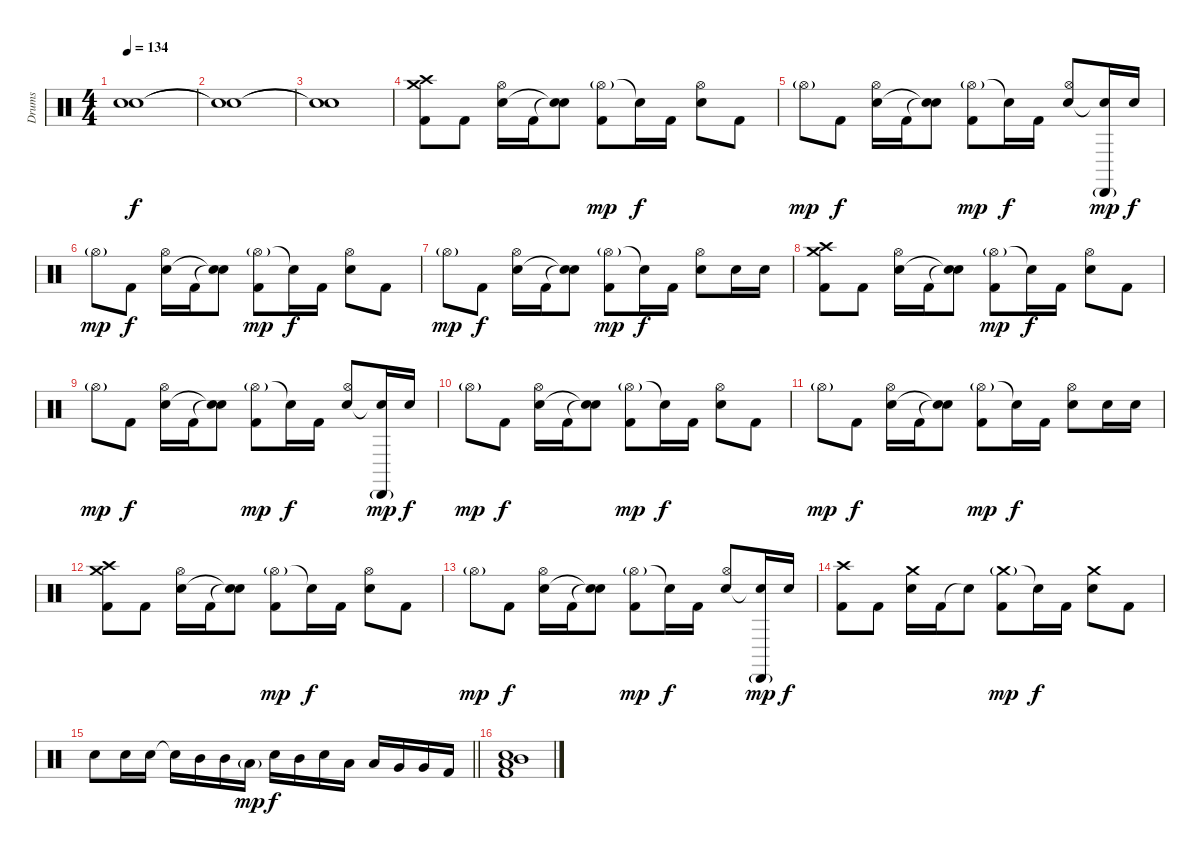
\track ("Drums" "Drums") {instrument percussion}
\staff {score}
\articulation defaults
\ts (4 4)
\tempo 134
\clef neutral
\ks c
("Snare (hit)"{t} "Snare (hit)"{t}).1{dy f} |
("Snare (hit)"{t} "Snare (hit)"{t}).1 |
("Snare (hit)"{t} "Snare (hit)"{t}).1 |
("Crash high (hit)" "Crash medium (hit)" "Kick (hit) 2").8 "Kick (hit) 2".8 ("Hi-Hat (open)" "Electric Snare (hit)").16 "Kick (hit) 2".16 ("Snare (hit)"{t} "Snare (hit)"{t}).8 ("Hi-Hat (open)"{g} "Kick (hit) 2").8{dy mp} "Snare (hit)"{t}.16{dy f} "Kick (hit) 2".16 ("Hi-Hat (open)" "Electric Snare (hit)").8 "Kick (hit) 2".8 |
"Hi-Hat (open)"{g}.8{dy mp} "Kick (hit) 2".8{dy f} ("Hi-Hat (open)" "Electric Snare (hit)").16 "Kick (hit) 2".16 ("Snare (hit)"{t} "Snare (hit)"{t}).8 ("Hi-Hat (open)"{g} "Kick (hit) 2").8{dy mp} "Snare (hit)"{t}.16{dy f} "Kick (hit) 2".16 ("Hi-Hat (open)" "Electric Snare (hit)").8 ("Cabasa (hit)"{g} "Snare (hit)"{t}).16{dy mp} "Electric Snare (hit)".16{dy f} |
"Hi-Hat (open)"{g}.8{dy mp} "Kick (hit) 2".8{dy f} ("Hi-Hat (open)" "Electric Snare (hit)").16 "Kick (hit) 2".16 ("Snare (hit)"{t} "Snare (hit)"{t}).8 ("Hi-Hat (open)"{g} "Kick (hit) 2").8{dy mp} "Snare (hit)"{t}.16{dy f} "Kick (hit) 2".16 ("Hi-Hat (open)" "Electric Snare (hit)").8 "Kick (hit) 2".8 |
"Hi-Hat (open)"{g}.8{dy mp} "Kick (hit) 2".8{dy f} ("Hi-Hat (open)" "Electric Snare (hit)").16 "Kick (hit) 2".16 ("Snare (hit)"{t} "Snare (hit)"{t}).8 ("Hi-Hat (open)"{g} "Kick (hit) 2").8{dy mp} "Snare (hit)"{t}.16{dy f} "Kick (hit) 2".16 ("Hi-Hat (open)" "Electric Snare (hit)").8 "Electric Snare (hit)".16 "Electric Snare (hit)".16 |
("Crash high (hit)" "Crash medium (hit)" "Kick (hit) 2").8 "Kick (hit) 2".8 ("Hi-Hat (open)" "Electric Snare (hit)").16 "Kick (hit) 2".16 ("Snare (hit)"{t} "Snare (hit)"{t}).8 ("Hi-Hat (open)"{g} "Kick (hit) 2").8{dy mp} "Snare (hit)"{t}.16{dy f} "Kick (hit) 2".16 ("Hi-Hat (open)" "Electric Snare (hit)").8 "Kick (hit) 2".8 |
"Hi-Hat (open)"{g}.8{dy mp} "Kick (hit) 2".8{dy f} ("Hi-Hat (open)" "Electric Snare (hit)").16 "Kick (hit) 2".16 ("Snare (hit)"{t} "Snare (hit)"{t}).8 ("Hi-Hat (open)"{g} "Kick (hit) 2").8{dy mp} "Snare (hit)"{t}.16{dy f} "Kick (hit) 2".16 ("Hi-Hat (open)" "Electric Snare (hit)").8 ("Cabasa (hit)"{g} "Snare (hit)"{t}).16{dy mp} "Electric Snare (hit)".16{dy f} |
"Hi-Hat (open)"{g}.8{dy mp} "Kick (hit) 2".8{dy f} ("Hi-Hat (open)" "Electric Snare (hit)").16 "Kick (hit) 2".16 ("Snare (hit)"{t} "Snare (hit)"{t}).8 ("Hi-Hat (open)"{g} "Kick (hit) 2").8{dy mp} "Snare (hit)"{t}.16{dy f} "Kick (hit) 2".16 ("Hi-Hat (open)" "Electric Snare (hit)").8 "Kick (hit) 2".8 |
"Hi-Hat (open)"{g}.8{dy mp} "Kick (hit) 2".8{dy f} ("Hi-Hat (open)" "Electric Snare (hit)").16 "Kick (hit) 2".16 ("Snare (hit)"{t} "Snare (hit)"{t}).8 ("Hi-Hat (open)"{g} "Kick (hit) 2").8{dy mp} "Snare (hit)"{t}.16{dy f} "Kick (hit) 2".16 ("Hi-Hat (open)" "Electric Snare (hit)").8 "Electric Snare (hit)".16 "Electric Snare (hit)".16 |
("Crash high (hit)" "Crash medium (hit)" "Kick (hit) 2").8 "Kick (hit) 2".8 ("Hi-Hat (open)" "Electric Snare (hit)").16 "Kick (hit) 2".16 ("Snare (hit)"{t} "Snare (hit)"{t}).8 ("Hi-Hat (open)"{g} "Kick (hit) 2").8{dy mp} "Snare (hit)"{t}.16{dy f} "Kick (hit) 2".16 ("Hi-Hat (open)" "Electric Snare (hit)").8 "Kick (hit) 2".8 |
"Hi-Hat (open)"{g}.8{dy mp} "Kick (hit) 2".8{dy f} ("Hi-Hat (open)" "Electric Snare (hit)").16 "Kick (hit) 2".16 ("Snare (hit)"{t} "Snare (hit)"{t}).8 ("Hi-Hat (open)"{g} "Kick (hit) 2").8{dy mp} "Snare (hit)"{t}.16{dy f} "Kick (hit) 2".16 ("Hi-Hat (open)" "Electric Snare (hit)").8 ("Cabasa (hit)"{g} "Snare (hit)"{t}).16{dy mp} "Electric Snare (hit)".16{dy f} |
("Crash high (hit)" "Kick (hit) 2").8 "Kick (hit) 2".8 ("Crash medium (hit)" "Electric Snare (hit)").16 "Kick (hit) 2".16 "Snare (hit)"{t}.8 ("Crash medium (hit)"{g} "Kick (hit) 2").8{dy mp} "Snare (hit)"{t}.16{dy f} "Kick (hit) 2".16 ("Crash medium (hit)" "Electric Snare (hit)").8 "Kick (hit) 2".8 |
\barLineRight lightlight "Electric Snare (hit)".8 "Electric Snare (hit)".16 "Electric Snare (hit)".16 "Snare (hit)"{t}.16 "Mid Tom (hit)".16 "Mid Tom (hit)".16 "Low Tom (hit)"{g}.16{dy mp} "Electric Snare (hit)".16{dy f} "Mid Tom (hit)".16 "Electric Snare (hit)".16 "Low Tom (hit)".16 "Low Tom (hit)".16 "Very Low Tom (hit)".16 "Very Low Tom (hit)".16 "Kick (hit) 2".16
|
("Mid Tom (hit)" "Low Tom (hit)" "Electric Snare (hit)" "Kick (hit) 2").1
